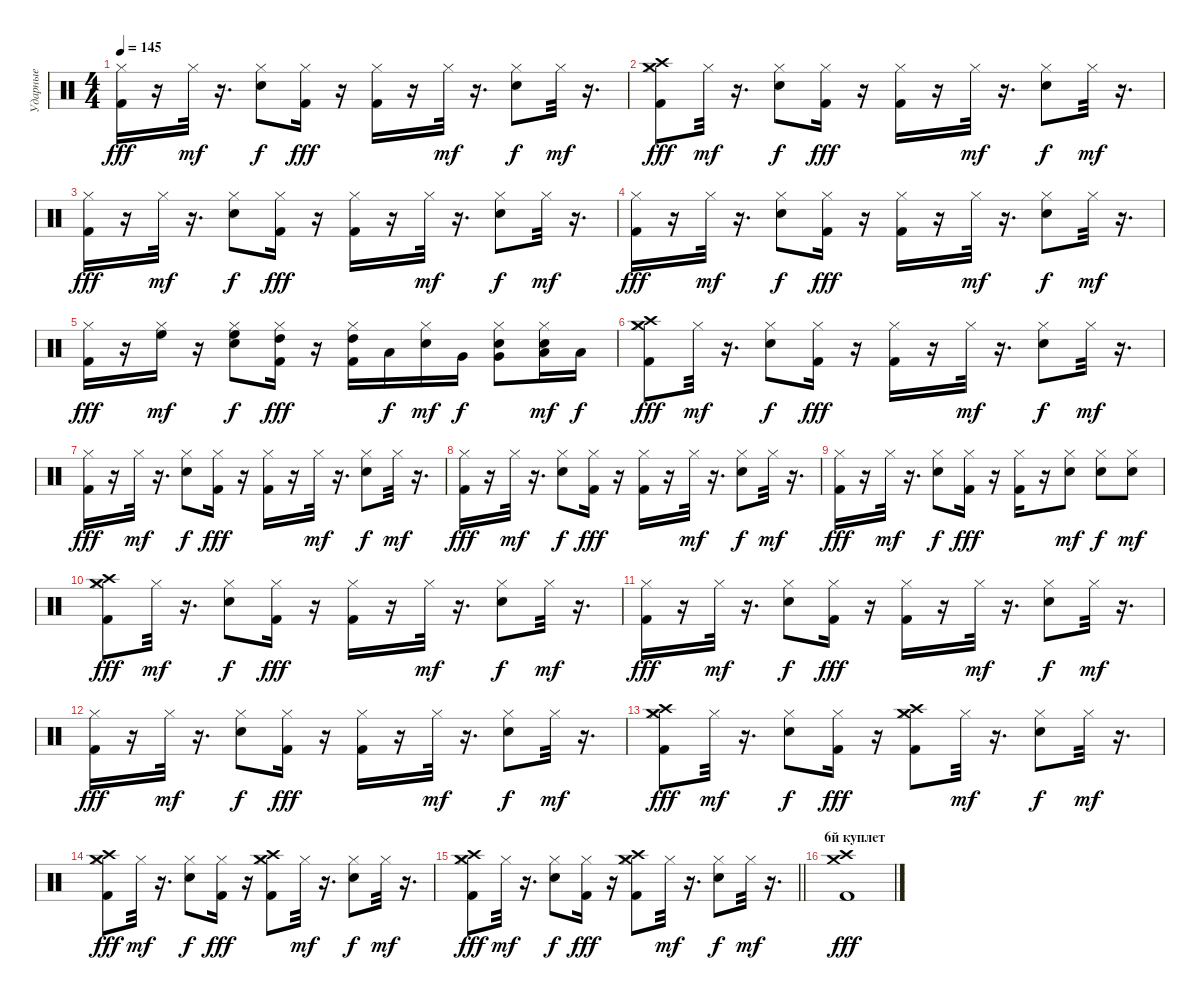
\track ("Ударные" "Ударные") {instrument percussion}
\staff {score}
\articulation defaults
\ts (4 4)
\tempo 145
\clef neutral
\ks c
("Hi-Hat (closed)" "Kick (hit) 2").16{dy fff} r.16 "Hi-Hat (closed)".32{dy mf} r.16{d} ("Snare (hit) 2" "Hi-Hat (closed)").8{dy f} ("Hi-Hat (closed)" "Kick (hit) 2").16{dy fff} r.16 ("Hi-Hat (closed)" "Kick (hit) 2").16 r.16 "Hi-Hat (closed)".32{dy mf} r.16{d} ("Snare (hit) 2" "Hi-Hat (closed)").8{dy f} "Hi-Hat (closed)".32{dy mf} r.16{d} |
("Hi-Hat (closed)" "Crash high (hit)" "Crash medium (hit)" "Kick (hit) 2").8{dy fff} "Hi-Hat (closed)".32{dy mf} r.16{d} ("Snare (hit) 2" "Hi-Hat (closed)").8{dy f} ("Hi-Hat (closed)" "Kick (hit) 2").16{dy fff} r.16 ("Hi-Hat (closed)" "Kick (hit) 2").16 r.16 "Hi-Hat (closed)".32{dy mf} r.16{d} ("Snare (hit) 2" "Hi-Hat (closed)").8{dy f} "Hi-Hat (closed)".32{dy mf} r.16{d} |
("Hi-Hat (closed)" "Kick (hit) 2").16{dy fff} r.16 "Hi-Hat (closed)".32{dy mf} r.16{d} ("Snare (hit) 2" "Hi-Hat (closed)").8{dy f} ("Hi-Hat (closed)" "Kick (hit) 2").16{dy fff} r.16 ("Hi-Hat (closed)" "Kick (hit) 2").16 r.16 "Hi-Hat (closed)".32{dy mf} r.16{d} ("Snare (hit) 2" "Hi-Hat (closed)").8{dy f} "Hi-Hat (closed)".32{dy mf} r.16{d} |
("Hi-Hat (closed)" "Kick (hit) 2").16{dy fff} r.16 "Hi-Hat (closed)".32{dy mf} r.16{d} ("Snare (hit) 2" "Hi-Hat (closed)").8{dy f} ("Hi-Hat (closed)" "Kick (hit) 2").16{dy fff} r.16 ("Hi-Hat (closed)" "Kick (hit) 2").16 r.16 "Hi-Hat (closed)".32{dy mf} r.16{d} ("Snare (hit) 2" "Hi-Hat (closed)").8{dy f} "Hi-Hat (closed)".32{dy mf} r.16{d} |
("Hi-Hat (closed)" "Kick (hit) 2").16{dy fff} r.16 ("High Floor Tom (hit)" "Hi-Hat (closed)").16{dy mf} r.16 ("High Floor Tom (hit)" "Snare (hit) 2" "Hi-Hat (closed)").8{dy f} ("High Tom (hit)" "Hi-Hat (closed)" "Kick (hit) 2").16{dy fff} r.16 ("High Tom (hit)" "Hi-Hat (closed)" "Kick (hit) 2").16 "Low Tom (hit)".16{dy f} ("Snare (hit) 2" "Hi-Hat (closed)").16{dy mf} "Very Low Tom (hit)".16{dy f} ("Very Low Tom (hit)" "Snare (hit) 2" "Hi-Hat (closed)").8 ("Low Floor Tom (hit)" "Snare (hit) 2" "Hi-Hat (closed)").16{dy mf} "Low Floor Tom (hit)".16{dy f} |
("Hi-Hat (closed)" "Crash high (hit)" "Crash medium (hit)" "Kick (hit) 2").8{dy fff} "Hi-Hat (closed)".32{dy mf} r.16{d} ("Snare (hit) 2" "Hi-Hat (closed)").8{dy f} ("Hi-Hat (closed)" "Kick (hit) 2").16{dy fff} r.16 ("Hi-Hat (closed)" "Kick (hit) 2").16 r.16 "Hi-Hat (closed)".32{dy mf} r.16{d} ("Snare (hit) 2" "Hi-Hat (closed)").8{dy f} "Hi-Hat (closed)".32{dy mf} r.16{d} |
("Hi-Hat (closed)" "Kick (hit) 2").16{dy fff} r.16 "Hi-Hat (closed)".32{dy mf} r.16{d} ("Snare (hit) 2" "Hi-Hat (closed)").8{dy f} ("Hi-Hat (closed)" "Kick (hit) 2").16{dy fff} r.16 ("Hi-Hat (closed)" "Kick (hit) 2").16 r.16 "Hi-Hat (closed)".32{dy mf} r.16{d} ("Snare (hit) 2" "Hi-Hat (closed)").8{dy f} "Hi-Hat (closed)".32{dy mf} r.16{d} |
("Hi-Hat (closed)" "Kick (hit) 2").16{dy fff} r.16 "Hi-Hat (closed)".32{dy mf} r.16{d} ("Snare (hit) 2" "Hi-Hat (closed)").8{dy f} ("Hi-Hat (closed)" "Kick (hit) 2").16{dy fff} r.16 ("Hi-Hat (closed)" "Kick (hit) 2").16 r.16 "Hi-Hat (closed)".32{dy mf} r.16{d} ("Snare (hit) 2" "Hi-Hat (closed)").8{dy f} "Hi-Hat (closed)".32{dy mf} r.16{d} |
("Hi-Hat (closed)" "Kick (hit) 2").16{dy fff} r.16 "Hi-Hat (closed)".32{dy mf} r.16{d} ("Snare (hit) 2" "Hi-Hat (closed)").8{dy f} ("Hi-Hat (closed)" "Kick (hit) 2").16{dy fff} r.16 ("Hi-Hat (closed)" "Kick (hit) 2").16 r.16 ("Snare (hit) 2" "Hi-Hat (closed)").8{dy mf} ("Snare (hit) 2" "Hi-Hat (closed)").8{dy f} ("Snare (hit) 2" "Hi-Hat (closed)").8{dy mf} |
("Hi-Hat (closed)" "Crash high (hit)" "Crash medium (hit)" "Kick (hit) 2").8{dy fff} "Hi-Hat (closed)".32{dy mf} r.16{d} ("Snare (hit) 2" "Hi-Hat (closed)").8{dy f} ("Hi-Hat (closed)" "Kick (hit) 2").16{dy fff} r.16 ("Hi-Hat (closed)" "Kick (hit) 2").16 r.16 "Hi-Hat (closed)".32{dy mf} r.16{d} ("Snare (hit) 2" "Hi-Hat (closed)").8{dy f} "Hi-Hat (closed)".32{dy mf} r.16{d} |
("Hi-Hat (closed)" "Kick (hit) 2").16{dy fff} r.16 "Hi-Hat (closed)".32{dy mf} r.16{d} ("Snare (hit) 2" "Hi-Hat (closed)").8{dy f} ("Hi-Hat (closed)" "Kick (hit) 2").16{dy fff} r.16 ("Hi-Hat (closed)" "Kick (hit) 2").16 r.16 "Hi-Hat (closed)".32{dy mf} r.16{d} ("Snare (hit) 2" "Hi-Hat (closed)").8{dy f} "Hi-Hat (closed)".32{dy mf} r.16{d} |
("Hi-Hat (closed)" "Kick (hit) 2").16{dy fff} r.16 "Hi-Hat (closed)".32{dy mf} r.16{d} ("Snare (hit) 2" "Hi-Hat (closed)").8{dy f} ("Hi-Hat (closed)" "Kick (hit) 2").16{dy fff} r.16 ("Hi-Hat (closed)" "Kick (hit) 2").16 r.16 "Hi-Hat (closed)".32{dy mf} r.16{d} ("Snare (hit) 2" "Hi-Hat (closed)").8{dy f} "Hi-Hat (closed)".32{dy mf} r.16{d} |
("Hi-Hat (closed)" "Crash high (hit)" "Crash medium (hit)" "Kick (hit) 2").8{dy fff} "Hi-Hat (closed)".32{dy mf} r.16{d} ("Snare (hit) 2" "Hi-Hat (closed)").8{dy f} ("Hi-Hat (closed)" "Kick (hit) 2").16{dy fff} r.16 ("Hi-Hat (closed)" "Crash high (hit)" "Crash medium (hit)" "Kick (hit) 2").8 "Hi-Hat (closed)".32{dy mf} r.16{d} ("Snare (hit) 2" "Hi-Hat (closed)").8{dy f} "Hi-Hat (closed)".32{dy mf} r.16{d} |
("Hi-Hat (closed)" "Crash high (hit)" "Crash medium (hit)" "Kick (hit) 2").8{dy fff} "Hi-Hat (closed)".32{dy mf} r.16{d} ("Snare (hit) 2" "Hi-Hat (closed)").8{dy f} ("Hi-Hat (closed)" "Kick (hit) 2").16{dy fff} r.16 ("Hi-Hat (closed)" "Crash high (hit)" "Crash medium (hit)" "Kick (hit) 2").8 "Hi-Hat (closed)".32{dy mf} r.16{d} ("Snare (hit) 2" "Hi-Hat (closed)").8{dy f} "Hi-Hat (closed)".32{dy mf} r.16{d} |
\barLineRight lightlight
("Hi-Hat (closed)" "Crash high (hit)" "Crash medium (hit)" "Kick (hit) 2").8{dy fff} "Hi-Hat (closed)".32{dy mf} r.16{d} ("Snare (hit) 2" "Hi-Hat (closed)").8{dy f} ("Hi-Hat (closed)" "Kick (hit) 2").16{dy fff} r.16 ("Hi-Hat (closed)" "Crash high (hit)" "Crash medium (hit)" "Kick (hit) 2").8 "Hi-Hat (closed)".32{dy mf} r.16{d} ("Snare (hit) 2" "Hi-Hat (closed)").8{dy f} "Hi-Hat (closed)".32{dy mf} r.16{d} |
\section ("" "6й куплет")
("Crash high (hit)" "Crash medium (hit)" "Kick (hit) 2").1{dy fff}
